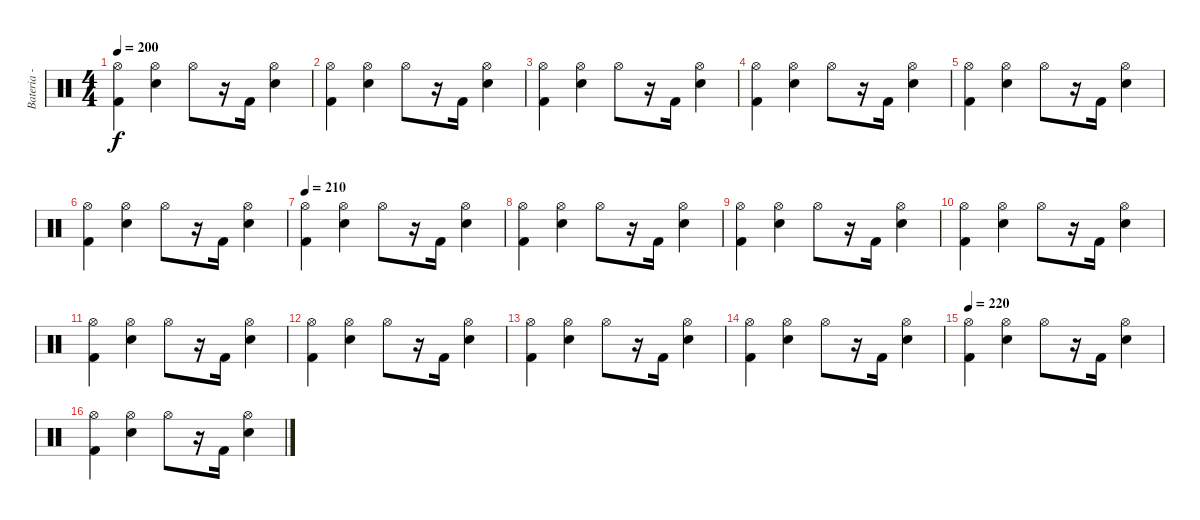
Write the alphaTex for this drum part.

\track ("Bateria - Larzon" "Bateria - ") {instrument percussion}
\staff {score}
\articulation defaults
\ts (4 4)
\tempo 200
\clef neutral
\ks c
("Kick (hit) 2" "Hi-Hat (open)").4{dy f} ("Electric Snare (hit)" "Hi-Hat (open)").4 "Hi-Hat (open)".8 r.16 "Kick (hit) 2".16 ("Electric Snare (hit)" "Hi-Hat (open)").4 |
("Kick (hit) 2" "Hi-Hat (open)").4 ("Electric Snare (hit)" "Hi-Hat (open)").4 "Hi-Hat (open)".8 r.16 "Kick (hit) 2".16 ("Electric Snare (hit)" "Hi-Hat (open)").4 |
("Kick (hit) 2" "Hi-Hat (open)").4 ("Electric Snare (hit)" "Hi-Hat (open)").4 "Hi-Hat (open)".8 r.16 "Kick (hit) 2".16 ("Electric Snare (hit)" "Hi-Hat (open)").4 |
("Kick (hit) 2" "Hi-Hat (open)").4 ("Electric Snare (hit)" "Hi-Hat (open)").4 "Hi-Hat (open)".8 r.16 "Kick (hit) 2".16 ("Electric Snare (hit)" "Hi-Hat (open)").4 |
("Kick (hit) 2" "Hi-Hat (open)").4 ("Electric Snare (hit)" "Hi-Hat (open)").4 "Hi-Hat (open)".8 r.16 "Kick (hit) 2".16 ("Electric Snare (hit)" "Hi-Hat (open)").4 |
("Kick (hit) 2" "Hi-Hat (open)").4 ("Electric Snare (hit)" "Hi-Hat (open)").4 "Hi-Hat (open)".8 r.16 "Kick (hit) 2".16 ("Electric Snare (hit)" "Hi-Hat (open)").4 |
\tempo 210
("Kick (hit) 2" "Hi-Hat (open)").4 ("Electric Snare (hit)" "Hi-Hat (open)").4 "Hi-Hat (open)".8 r.16 "Kick (hit) 2".16 ("Electric Snare (hit)" "Hi-Hat (open)").4 |
("Kick (hit) 2" "Hi-Hat (open)").4 ("Electric Snare (hit)" "Hi-Hat (open)").4 "Hi-Hat (open)".8 r.16 "Kick (hit) 2".16 ("Electric Snare (hit)" "Hi-Hat (open)").4 |
("Kick (hit) 2" "Hi-Hat (open)").4 ("Electric Snare (hit)" "Hi-Hat (open)").4 "Hi-Hat (open)".8 r.16 "Kick (hit) 2".16 ("Electric Snare (hit)" "Hi-Hat (open)").4 |
("Kick (hit) 2" "Hi-Hat (open)").4 ("Electric Snare (hit)" "Hi-Hat (open)").4 "Hi-Hat (open)".8 r.16 "Kick (hit) 2".16 ("Electric Snare (hit)" "Hi-Hat (open)").4 |
("Kick (hit) 2" "Hi-Hat (open)").4 ("Electric Snare (hit)" "Hi-Hat (open)").4 "Hi-Hat (open)".8 r.16 "Kick (hit) 2".16 ("Electric Snare (hit)" "Hi-Hat (open)").4 |
("Kick (hit) 2" "Hi-Hat (open)").4 ("Electric Snare (hit)" "Hi-Hat (open)").4 "Hi-Hat (open)".8 r.16 "Kick (hit) 2".16 ("Electric Snare (hit)" "Hi-Hat (open)").4 |
("Kick (hit) 2" "Hi-Hat (open)").4 ("Electric Snare (hit)" "Hi-Hat (open)").4 "Hi-Hat (open)".8 r.16 "Kick (hit) 2".16 ("Electric Snare (hit)" "Hi-Hat (open)").4 |
("Kick (hit) 2" "Hi-Hat (open)").4 ("Electric Snare (hit)" "Hi-Hat (open)").4 "Hi-Hat (open)".8 r.16 "Kick (hit) 2".16 ("Electric Snare (hit)" "Hi-Hat (open)").4 |
\tempo 220
("Kick (hit) 2" "Hi-Hat (open)").4{volume 12} ("Electric Snare (hit)" "Hi-Hat (open)").4 "Hi-Hat (open)".8 r.16 "Kick (hit) 2".16 ("Electric Snare (hit)" "Hi-Hat (open)").4 |
("Kick (hit) 2" "Hi-Hat (open)").4 ("Electric Snare (hit)" "Hi-Hat (open)").4 "Hi-Hat (open)".8 r.16 "Kick (hit) 2".16 ("Electric Snare (hit)" "Hi-Hat (open)").4
